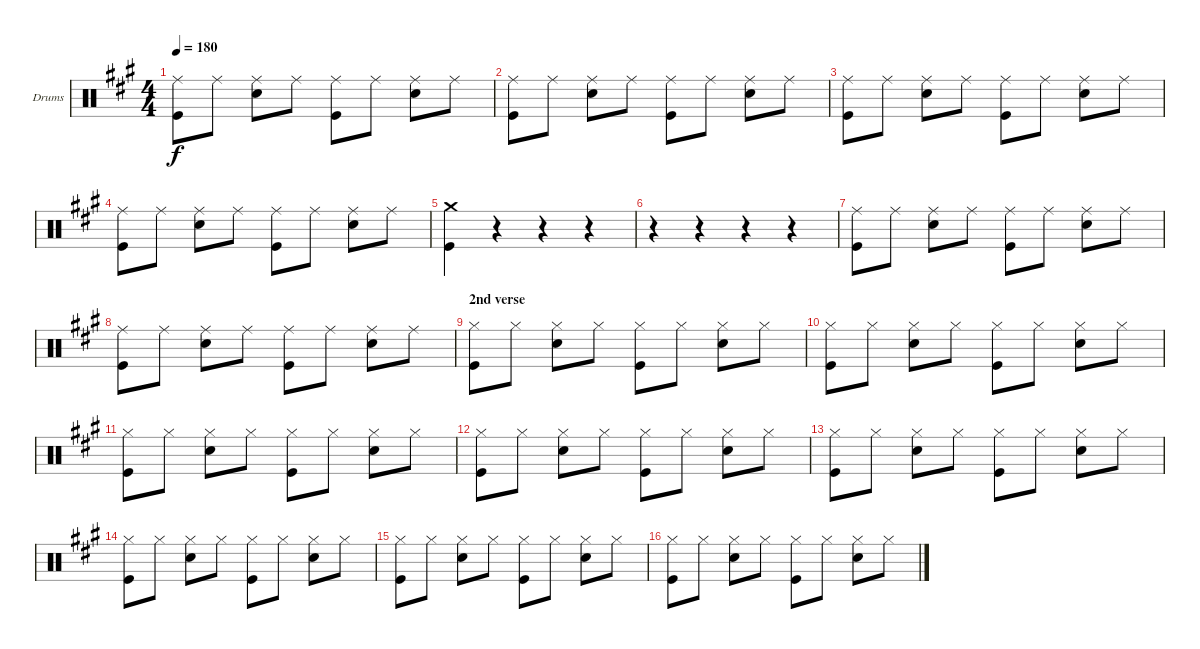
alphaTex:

\bracketExtendMode groupsimilarinstruments
\firstSystemTrackNameOrientation horizontal
\otherSystemsTrackNameOrientation horizontal
\track ("Drumkit" "Drums") {instrument percussion}
\staff {score}
\articulation defaults
\ts (4 4)
\tempo 180
\clef neutral
\ks a
("Ride (middle)" "Kick (hit)").8{dy f} "Ride (middle)".8 ("Ride (middle)" "Snare (hit) 2").8 "Ride (middle)".8 ("Ride (middle)" "Kick (hit)").8 "Ride (middle)".8 ("Ride (middle)" "Snare (hit) 2").8 "Ride (middle)".8 |
("Ride (middle)" "Kick (hit)").8 "Ride (middle)".8 ("Ride (middle)" "Snare (hit) 2").8 "Ride (middle)".8 ("Ride (middle)" "Kick (hit)").8 "Ride (middle)".8 ("Ride (middle)" "Snare (hit) 2").8 "Ride (middle)".8 |
("Ride (middle)" "Kick (hit)").8 "Ride (middle)".8 ("Ride (middle)" "Snare (hit) 2").8 "Ride (middle)".8 ("Ride (middle)" "Kick (hit)").8 "Ride (middle)".8 ("Ride (middle)" "Snare (hit) 2").8 "Ride (middle)".8 |
("Ride (middle)" "Kick (hit)").8 "Ride (middle)".8 ("Ride (middle)" "Snare (hit) 2").8 "Ride (middle)".8 ("Ride (middle)" "Kick (hit)").8 "Ride (middle)".8 ("Ride (middle)" "Snare (hit) 2").8 "Ride (middle)".8 |
("Crash medium (hit)" "Kick (hit)").4 r.4 r.4 r.4 |
r.4 r.4 r.4 r.4 |
("Ride (middle)" "Kick (hit)").8 "Ride (middle)".8 ("Ride (middle)" "Snare (hit) 2").8 "Ride (middle)".8 ("Ride (middle)" "Kick (hit)").8 "Ride (middle)".8 ("Ride (middle)" "Snare (hit) 2").8 "Ride (middle)".8 |
("Ride (middle)" "Kick (hit)").8 "Ride (middle)".8 ("Ride (middle)" "Snare (hit) 2").8 "Ride (middle)".8 ("Ride (middle)" "Kick (hit)").8 "Ride (middle)".8 ("Ride (middle)" "Snare (hit) 2").8 "Ride (middle)".8 |
\section ("" "2nd verse")
("Hi-Hat (closed)" "Kick (hit)").8 "Hi-Hat (closed)".8 ("Hi-Hat (closed)" "Snare (hit) 2").8 "Hi-Hat (closed)".8 ("Hi-Hat (closed)" "Kick (hit)").8 "Hi-Hat (closed)".8 ("Hi-Hat (closed)" "Snare (hit) 2").8 "Hi-Hat (closed)".8 |
("Hi-Hat (closed)" "Kick (hit)").8 "Hi-Hat (closed)".8 ("Hi-Hat (closed)" "Snare (hit) 2").8 "Hi-Hat (closed)".8 ("Hi-Hat (closed)" "Kick (hit)").8 "Hi-Hat (closed)".8 ("Hi-Hat (closed)" "Snare (hit) 2").8 "Hi-Hat (closed)".8 |
("Hi-Hat (closed)" "Kick (hit)").8 "Hi-Hat (closed)".8 ("Hi-Hat (closed)" "Snare (hit) 2").8 "Hi-Hat (closed)".8 ("Hi-Hat (closed)" "Kick (hit)").8 "Hi-Hat (closed)".8 ("Hi-Hat (closed)" "Snare (hit) 2").8 "Hi-Hat (closed)".8 |
("Hi-Hat (closed)" "Kick (hit)").8 "Hi-Hat (closed)".8 ("Hi-Hat (closed)" "Snare (hit) 2").8 "Hi-Hat (closed)".8 ("Hi-Hat (closed)" "Kick (hit)").8 "Hi-Hat (closed)".8 ("Hi-Hat (closed)" "Snare (hit) 2").8 "Hi-Hat (closed)".8 |
("Hi-Hat (closed)" "Kick (hit)").8 "Hi-Hat (closed)".8 ("Hi-Hat (closed)" "Snare (hit) 2").8 "Hi-Hat (closed)".8 ("Hi-Hat (closed)" "Kick (hit)").8 "Hi-Hat (closed)".8 ("Hi-Hat (closed)" "Snare (hit) 2").8 "Hi-Hat (closed)".8 |
("Hi-Hat (closed)" "Kick (hit)").8 "Hi-Hat (closed)".8 ("Hi-Hat (closed)" "Snare (hit) 2").8 "Hi-Hat (closed)".8 ("Hi-Hat (closed)" "Kick (hit)").8 "Hi-Hat (closed)".8 ("Hi-Hat (closed)" "Snare (hit) 2").8 "Hi-Hat (closed)".8 |
("Hi-Hat (closed)" "Kick (hit)").8 "Hi-Hat (closed)".8 ("Hi-Hat (closed)" "Snare (hit) 2").8 "Hi-Hat (closed)".8 ("Hi-Hat (closed)" "Kick (hit)").8 "Hi-Hat (closed)".8 ("Hi-Hat (closed)" "Snare (hit) 2").8 "Hi-Hat (closed)".8 |
("Hi-Hat (closed)" "Kick (hit)").8 "Hi-Hat (closed)".8 ("Hi-Hat (closed)" "Snare (hit) 2").8 "Hi-Hat (closed)".8 ("Hi-Hat (closed)" "Kick (hit)").8 "Hi-Hat (closed)".8 ("Hi-Hat (closed)" "Snare (hit) 2").8 "Hi-Hat (closed)".8
